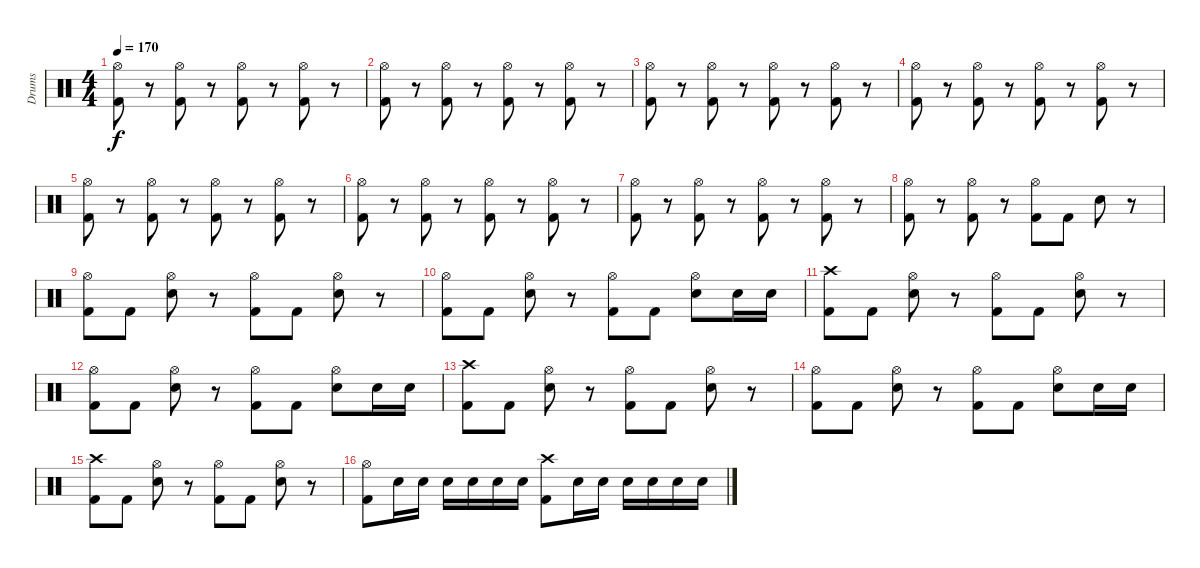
\track ("Drums" "Drums") {instrument percussion}
\staff {score}
\articulation defaults
\ts (4 4)
\tempo 170
\clef neutral
\ks c
("Hi-Hat (open)" "Kick (hit) 2").8{dy f} r.8 ("Hi-Hat (open)" "Kick (hit) 2").8 r.8 ("Hi-Hat (open)" "Kick (hit) 2").8 r.8 ("Hi-Hat (open)" "Kick (hit) 2").8 r.8 |
("Hi-Hat (open)" "Kick (hit) 2").8 r.8 ("Hi-Hat (open)" "Kick (hit) 2").8 r.8 ("Hi-Hat (open)" "Kick (hit) 2").8 r.8 ("Hi-Hat (open)" "Kick (hit) 2").8 r.8 |
("Hi-Hat (open)" "Kick (hit) 2").8 r.8 ("Hi-Hat (open)" "Kick (hit) 2").8 r.8 ("Hi-Hat (open)" "Kick (hit) 2").8 r.8 ("Hi-Hat (open)" "Kick (hit) 2").8 r.8 |
("Hi-Hat (open)" "Kick (hit) 2").8 r.8 ("Hi-Hat (open)" "Kick (hit) 2").8 r.8 ("Hi-Hat (open)" "Kick (hit) 2").8 r.8 ("Hi-Hat (open)" "Kick (hit) 2").8 r.8 |
("Hi-Hat (open)" "Kick (hit) 2").8 r.8 ("Hi-Hat (open)" "Kick (hit) 2").8 r.8 ("Hi-Hat (open)" "Kick (hit) 2").8 r.8 ("Hi-Hat (open)" "Kick (hit) 2").8 r.8 |
("Hi-Hat (open)" "Kick (hit) 2").8 r.8 ("Hi-Hat (open)" "Kick (hit) 2").8 r.8 ("Hi-Hat (open)" "Kick (hit) 2").8 r.8 ("Hi-Hat (open)" "Kick (hit) 2").8 r.8 |
("Hi-Hat (open)" "Kick (hit) 2").8 r.8 ("Hi-Hat (open)" "Kick (hit) 2").8 r.8 ("Hi-Hat (open)" "Kick (hit) 2").8 r.8 ("Hi-Hat (open)" "Kick (hit) 2").8 r.8 |
("Hi-Hat (open)" "Kick (hit) 2").8 r.8 ("Hi-Hat (open)" "Kick (hit) 2").8 r.8 ("Hi-Hat (open)" "Kick (hit) 2").8 "Kick (hit) 2".8 "Electric Snare (hit)".8 r.8 |
("Hi-Hat (open)" "Kick (hit) 2").8 "Kick (hit) 2".8 ("Hi-Hat (open)" "Electric Snare (hit)").8 r.8 ("Hi-Hat (open)" "Kick (hit) 2").8 "Kick (hit) 2".8 ("Hi-Hat (open)" "Electric Snare (hit)").8 r.8 |
("Hi-Hat (open)" "Kick (hit) 2").8 "Kick (hit) 2".8 ("Hi-Hat (open)" "Electric Snare (hit)").8 r.8 ("Hi-Hat (open)" "Kick (hit) 2").8 "Kick (hit) 2".8 ("Hi-Hat (open)" "Electric Snare (hit)").8 "Electric Snare (hit)".16 "Electric Snare (hit)".16 |
("Crash high (hit)" "Kick (hit) 2").8 "Kick (hit) 2".8 ("Hi-Hat (open)" "Electric Snare (hit)").8 r.8 ("Hi-Hat (open)" "Kick (hit) 2").8 "Kick (hit) 2".8 ("Hi-Hat (open)" "Electric Snare (hit)").8 r.8 |
("Hi-Hat (open)" "Kick (hit) 2").8 "Kick (hit) 2".8 ("Hi-Hat (open)" "Electric Snare (hit)").8 r.8 ("Hi-Hat (open)" "Kick (hit) 2").8 "Kick (hit) 2".8 ("Hi-Hat (open)" "Electric Snare (hit)").8 "Electric Snare (hit)".16 "Electric Snare (hit)".16 |
("Crash high (hit)" "Kick (hit) 2").8 "Kick (hit) 2".8 ("Hi-Hat (open)" "Electric Snare (hit)").8 r.8 ("Hi-Hat (open)" "Kick (hit) 2").8 "Kick (hit) 2".8 ("Hi-Hat (open)" "Electric Snare (hit)").8 r.8 |
("Hi-Hat (open)" "Kick (hit) 2").8 "Kick (hit) 2".8 ("Hi-Hat (open)" "Electric Snare (hit)").8 r.8 ("Hi-Hat (open)" "Kick (hit) 2").8 "Kick (hit) 2".8 ("Hi-Hat (open)" "Electric Snare (hit)").8 "Electric Snare (hit)".16 "Electric Snare (hit)".16 |
("Crash high (hit)" "Kick (hit) 2").8 "Kick (hit) 2".8 ("Hi-Hat (open)" "Electric Snare (hit)").8 r.8 ("Hi-Hat (open)" "Kick (hit) 2").8 "Kick (hit) 2".8 ("Hi-Hat (open)" "Electric Snare (hit)").8 r.8 |
("Hi-Hat (open)" "Kick (hit) 2").8 "Electric Snare (hit)".16 "Electric Snare (hit)".16 "Electric Snare (hit)".16 "Electric Snare (hit)".16 "Electric Snare (hit)".16 "Electric Snare (hit)".16 ("Crash high (hit)" "Kick (hit) 2").8 "Electric Snare (hit)".16 "Electric Snare (hit)".16 "Electric Snare (hit)".16 "Electric Snare (hit)".16 "Electric Snare (hit)".16 "Electric Snare (hit)".16
